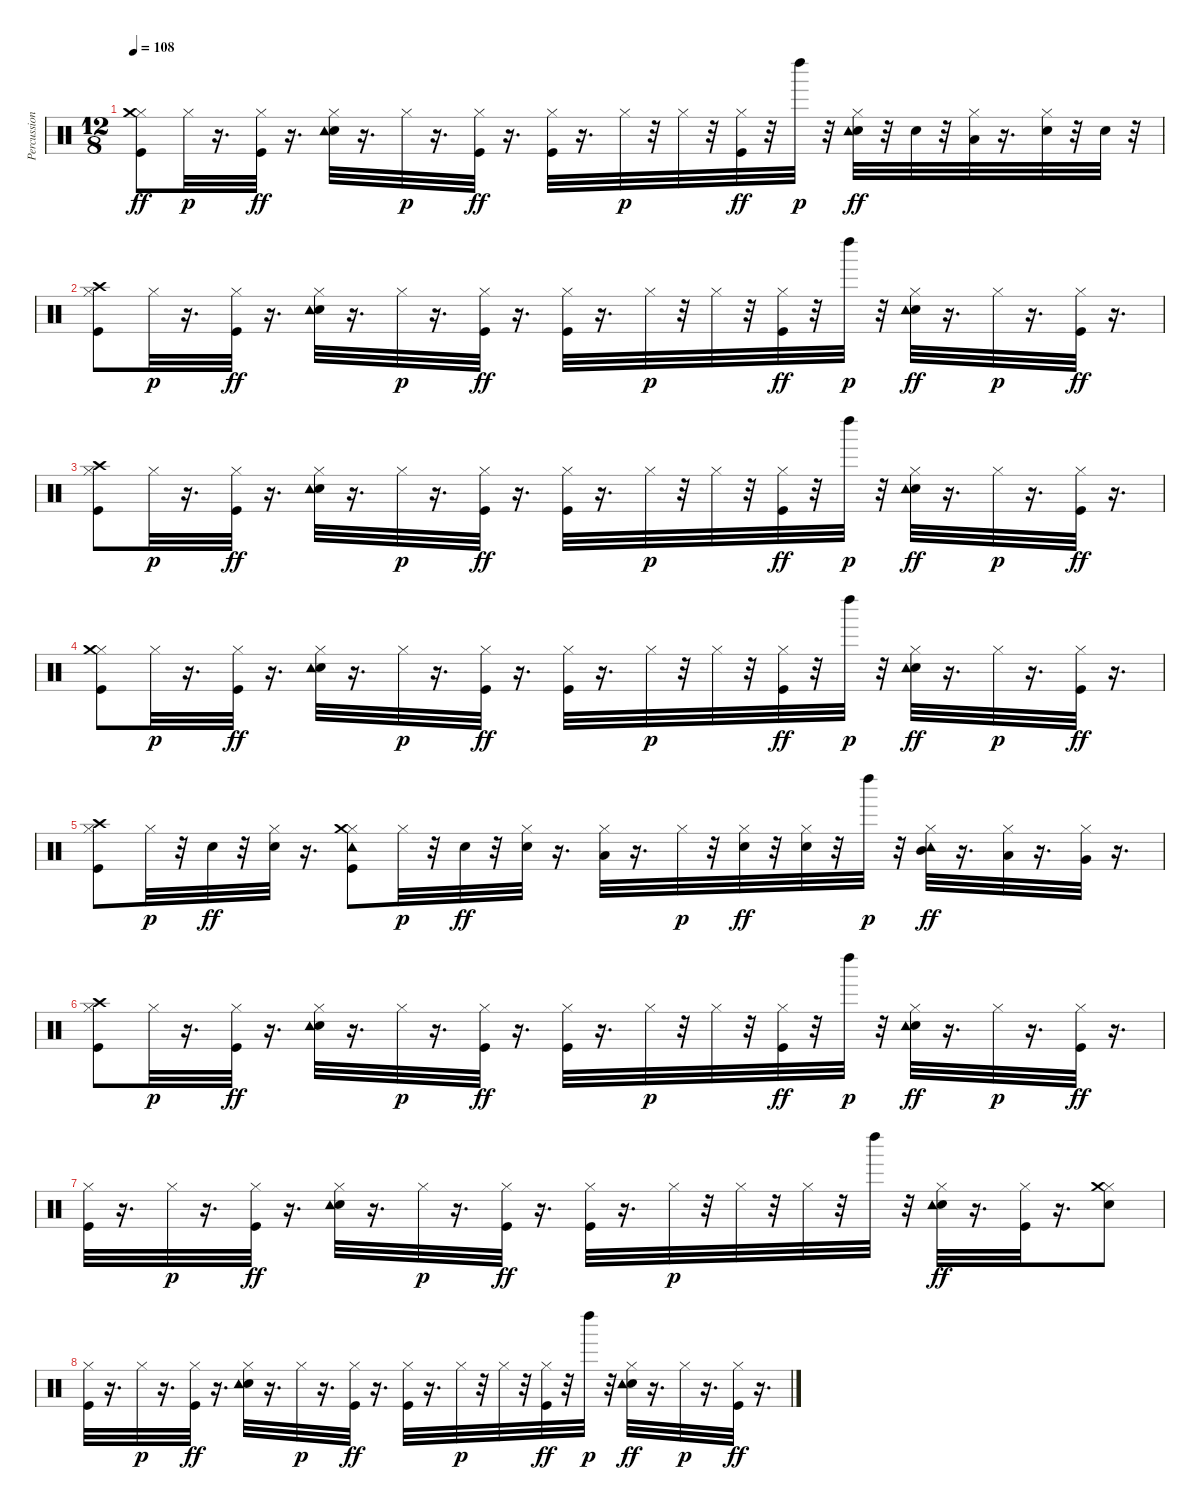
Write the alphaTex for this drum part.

\track ("Percussion" "Percussion") {instrument percussion}
\staff {score}
\articulation defaults
\ts (12 8)
\tempo 108
\clef neutral
\ks c
("Hi-Hat (closed)" "Kick (hit)" "Crash medium (hit)").8{dy ff} "Hi-Hat (closed)".32{dy p} r.16{d} ("Hi-Hat (closed)" "Kick (hit)").32{dy ff} r.16{d} ("Hi-Hat (closed)" "Snare (hit) 2" "Tambourine (hit)").32 r.16{d} "Hi-Hat (closed)".32{dy p} r.16{d} ("Hi-Hat (closed)" "Kick (hit)").32{dy ff} r.16{d} ("Hi-Hat (closed)" "Kick (hit)").32 r.16{d} "Hi-Hat (closed)".32{dy p} r.32 "Hi-Hat (closed)".32 r.32 ("Hi-Hat (closed)" "Kick (hit)").32{dy ff} r.32 "Left Maraca (hit)".32{dy p} r.32 ("Hi-Hat (closed)" "Snare (hit) 2" "Tambourine (hit)").32{dy ff} r.32 "Snare (hit) 2".32 r.32 ("Hi-Hat (closed)" "Low Tom (hit)").32 r.16{d} ("Hi-Hat (closed)" "Snare (hit) 2").32 r.32 "Snare (hit) 2".32 r.32 |
("Hi-Hat (closed)" "Kick (hit)" "Crash high (hit)").8 "Hi-Hat (closed)".32{dy p} r.16{d} ("Hi-Hat (closed)" "Kick (hit)").32{dy ff} r.16{d} ("Hi-Hat (closed)" "Snare (hit) 2" "Tambourine (hit)").32 r.16{d} "Hi-Hat (closed)".32{dy p} r.16{d} ("Hi-Hat (closed)" "Kick (hit)").32{dy ff} r.16{d} ("Hi-Hat (closed)" "Kick (hit)").32 r.16{d} "Hi-Hat (closed)".32{dy p} r.32 "Hi-Hat (closed)".32 r.32 ("Hi-Hat (closed)" "Kick (hit)").32{dy ff} r.32 "Left Maraca (hit)".32{dy p} r.32 ("Hi-Hat (closed)" "Snare (hit) 2" "Tambourine (hit)").32{dy ff} r.16{d} "Hi-Hat (closed)".32{dy p} r.16{d} ("Hi-Hat (closed)" "Kick (hit)").32{dy ff} r.16{d} |
("Hi-Hat (closed)" "Kick (hit)" "Crash high (hit)").8 "Hi-Hat (closed)".32{dy p} r.16{d} ("Hi-Hat (closed)" "Kick (hit)").32{dy ff} r.16{d} ("Hi-Hat (closed)" "Snare (hit) 2" "Tambourine (hit)").32 r.16{d} "Hi-Hat (closed)".32{dy p} r.16{d} ("Hi-Hat (closed)" "Kick (hit)").32{dy ff} r.16{d} ("Hi-Hat (closed)" "Kick (hit)").32 r.16{d} "Hi-Hat (closed)".32{dy p} r.32 "Hi-Hat (closed)".32 r.32 ("Hi-Hat (closed)" "Kick (hit)").32{dy ff} r.32 "Left Maraca (hit)".32{dy p} r.32 ("Hi-Hat (closed)" "Snare (hit) 2" "Tambourine (hit)").32{dy ff} r.16{d} "Hi-Hat (closed)".32{dy p} r.16{d} ("Hi-Hat (closed)" "Kick (hit)").32{dy ff} r.16{d} |
("Hi-Hat (closed)" "Kick (hit)" "Crash medium (hit)").8 "Hi-Hat (closed)".32{dy p} r.16{d} ("Hi-Hat (closed)" "Kick (hit)").32{dy ff} r.16{d} ("Hi-Hat (closed)" "Snare (hit) 2" "Tambourine (hit)").32 r.16{d} "Hi-Hat (closed)".32{dy p} r.16{d} ("Hi-Hat (closed)" "Kick (hit)").32{dy ff} r.16{d} ("Hi-Hat (closed)" "Kick (hit)").32 r.16{d} "Hi-Hat (closed)".32{dy p} r.32 "Hi-Hat (closed)".32 r.32 ("Hi-Hat (closed)" "Kick (hit)").32{dy ff} r.32 "Left Maraca (hit)".32{dy p} r.32 ("Hi-Hat (closed)" "Snare (hit) 2" "Tambourine (hit)").32{dy ff} r.16{d} "Hi-Hat (closed)".32{dy p} r.16{d} ("Hi-Hat (closed)" "Kick (hit)").32{dy ff} r.16{d} |
("Hi-Hat (closed)" "Kick (hit)" "Crash high (hit)").8 "Hi-Hat (closed)".32{dy p} r.32 "Snare (hit) 2".32{dy ff} r.32 ("Hi-Hat (closed)" "Snare (hit) 2").32 r.16{d} ("Hi-Hat (closed)" "Tambourine (hit)" "Kick (hit)" "Crash medium (hit)").8 "Hi-Hat (closed)".32{dy p} r.32 "Snare (hit) 2".32{dy ff} r.32 ("Hi-Hat (closed)" "Snare (hit) 2").32 r.16{d} ("Hi-Hat (closed)" "Low Tom (hit)").32 r.16{d} "Hi-Hat (closed)".32{dy p} r.32 ("Hi-Hat (closed)" "Snare (hit) 2").32{dy ff} r.32 ("Hi-Hat (closed)" "Snare (hit) 2").32 r.32 "Left Maraca (hit)".32{dy p} r.32 ("Hi-Hat (closed)" "Tambourine (hit)" "Mid Tom (hit)").32{dy ff} r.16{d} ("Hi-Hat (closed)" "Low Tom (hit)").32 r.16{d} ("Hi-Hat (closed)" "Very Low Tom (hit)").32 r.16{d} |
("Hi-Hat (closed)" "Kick (hit)" "Crash high (hit)").8 "Hi-Hat (closed)".32{dy p} r.16{d} ("Hi-Hat (closed)" "Kick (hit)").32{dy ff} r.16{d} ("Hi-Hat (closed)" "Snare (hit) 2" "Tambourine (hit)").32 r.16{d} "Hi-Hat (closed)".32{dy p} r.16{d} ("Hi-Hat (closed)" "Kick (hit)").32{dy ff} r.16{d} ("Hi-Hat (closed)" "Kick (hit)").32 r.16{d} "Hi-Hat (closed)".32{dy p} r.32 "Hi-Hat (closed)".32 r.32 ("Hi-Hat (closed)" "Kick (hit)").32{dy ff} r.32 "Left Maraca (hit)".32{dy p} r.32 ("Hi-Hat (closed)" "Snare (hit) 2" "Tambourine (hit)").32{dy ff} r.16{d} "Hi-Hat (closed)".32{dy p} r.16{d} ("Hi-Hat (closed)" "Kick (hit)").32{dy ff} r.16{d} |
("Hi-Hat (closed)" "Kick (hit)").32 r.16{d} "Hi-Hat (closed)".32{dy p} r.16{d} ("Hi-Hat (closed)" "Kick (hit)").32{dy ff} r.16{d} ("Hi-Hat (closed)" "Snare (hit) 2" "Tambourine (hit)").32 r.16{d} "Hi-Hat (closed)".32{dy p} r.16{d} ("Hi-Hat (closed)" "Kick (hit)").32{dy ff} r.16{d} ("Hi-Hat (closed)" "Kick (hit)").32 r.16{d} "Hi-Hat (closed)".32{dy p} r.32 "Hi-Hat (closed)".32 r.32 "Hi-Hat (closed)".32 r.32 "Left Maraca (hit)".32 r.32 ("Hi-Hat (closed)" "Snare (hit) 2" "Tambourine (hit)").32{dy ff} r.16{d} ("Hi-Hat (closed)" "Kick (hit)").32 r.16{d} ("Hi-Hat (closed)" "Snare (hit) 2" "Crash medium (hit)").8 |
("Hi-Hat (closed)" "Kick (hit)").32 r.16{d} "Hi-Hat (closed)".32{dy p} r.16{d} ("Hi-Hat (closed)" "Kick (hit)").32{dy ff} r.16{d} ("Hi-Hat (closed)" "Snare (hit) 2" "Tambourine (hit)").32 r.16{d} "Hi-Hat (closed)".32{dy p} r.16{d} ("Hi-Hat (closed)" "Kick (hit)").32{dy ff} r.16{d} ("Hi-Hat (closed)" "Kick (hit)").32 r.16{d} "Hi-Hat (closed)".32{dy p} r.32 "Hi-Hat (closed)".32 r.32 ("Hi-Hat (closed)" "Kick (hit)").32{dy ff} r.32 "Left Maraca (hit)".32{dy p} r.32 ("Hi-Hat (closed)" "Snare (hit) 2" "Tambourine (hit)").32{dy ff} r.16{d} "Hi-Hat (closed)".32{dy p} r.16{d} ("Hi-Hat (closed)" "Kick (hit)").32{dy ff} r.16{d}
